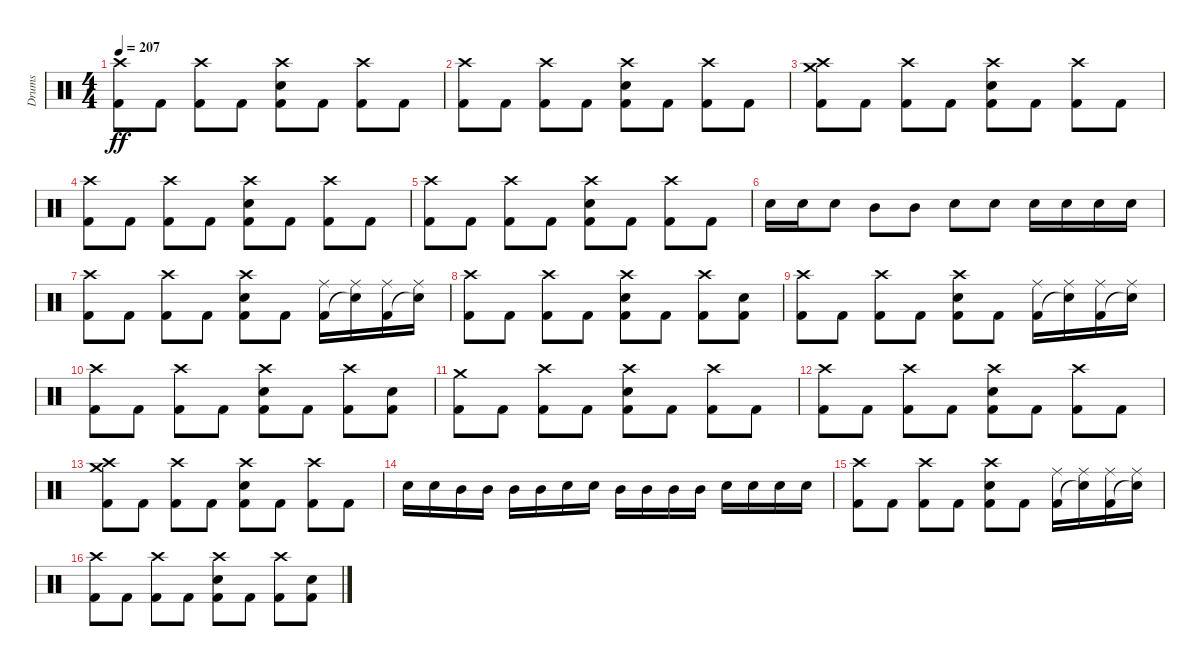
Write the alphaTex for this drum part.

\track ("Drums" "Drums") {instrument percussion}
\staff {score}
\articulation defaults
\ts (4 4)
\tempo 207
\clef neutral
\ks c
("Crash high (hit)" "Kick (hit) 2").8{dy ff} "Kick (hit) 2".8 ("Crash high (hit)" "Kick (hit) 2").8 "Kick (hit) 2".8 ("Crash high (hit)" "Snare (hit) 2" "Kick (hit) 2").8 "Kick (hit) 2".8 ("Crash high (hit)" "Kick (hit) 2").8 "Kick (hit) 2".8 |
("Crash high (hit)" "Kick (hit) 2").8 "Kick (hit) 2".8 ("Crash high (hit)" "Kick (hit) 2").8 "Kick (hit) 2".8 ("Crash high (hit)" "Snare (hit) 2" "Kick (hit) 2").8 "Kick (hit) 2".8 ("Crash high (hit)" "Kick (hit) 2").8 "Kick (hit) 2".8 |
("Crash medium (hit)" "Crash high (hit)" "Kick (hit) 2").8 "Kick (hit) 2".8 ("Crash high (hit)" "Kick (hit) 2").8 "Kick (hit) 2".8 ("Crash high (hit)" "Snare (hit) 2" "Kick (hit) 2").8 "Kick (hit) 2".8 ("Crash high (hit)" "Kick (hit) 2").8 "Kick (hit) 2".8 |
("Crash high (hit)" "Kick (hit) 2").8 "Kick (hit) 2".8 ("Crash high (hit)" "Kick (hit) 2").8 "Kick (hit) 2".8 ("Crash high (hit)" "Snare (hit) 2" "Kick (hit) 2").8 "Kick (hit) 2".8 ("Crash high (hit)" "Kick (hit) 2").8 "Kick (hit) 2".8 |
("Crash high (hit)" "Kick (hit) 2").8 "Kick (hit) 2".8 ("Crash high (hit)" "Kick (hit) 2").8 "Kick (hit) 2".8 ("Crash high (hit)" "Snare (hit) 2" "Kick (hit) 2").8 "Kick (hit) 2".8 ("Crash high (hit)" "Kick (hit) 2").8 "Kick (hit) 2".8 |
"Snare (hit) 2".16 "Snare (hit) 2".16 "Snare (hit) 2".8 "Mid Tom (hit)".8 "Mid Tom (hit)".8 "Snare (hit) 2".8 "Snare (hit) 2".8 "Snare (hit) 2".16 "Snare (hit) 2".16 "Snare (hit) 2".16 "Snare (hit) 2".16 |
("Crash high (hit)" "Kick (hit) 2").8 "Kick (hit) 2".8 ("Crash high (hit)" "Kick (hit) 2").8 "Kick (hit) 2".8 ("Crash high (hit)" "Snare (hit) 2" "Kick (hit) 2").8 "Kick (hit) 2".8 ("Ride (middle)" "Kick (hit) 2").16 ("Ride (middle)" "Snare (hit)"{t}).16 ("Ride (middle)" "Kick (hit) 2").16 ("Ride (middle)" "Snare (hit)"{t}).16 |
("Crash high (hit)" "Kick (hit) 2").8 "Kick (hit) 2".8 ("Crash high (hit)" "Kick (hit) 2").8 "Kick (hit) 2".8 ("Crash high (hit)" "Snare (hit) 2" "Kick (hit) 2").8 "Kick (hit) 2".8 ("Crash high (hit)" "Kick (hit) 2").8 ("Snare (hit) 2" "Kick (hit) 2").8 |
("Crash high (hit)" "Kick (hit) 2").8 "Kick (hit) 2".8 ("Crash high (hit)" "Kick (hit) 2").8 "Kick (hit) 2".8 ("Crash high (hit)" "Snare (hit) 2" "Kick (hit) 2").8 "Kick (hit) 2".8 ("Ride (middle)" "Kick (hit) 2").16 ("Ride (middle)" "Snare (hit)"{t}).16 ("Ride (middle)" "Kick (hit) 2").16 ("Ride (middle)" "Snare (hit)"{t}).16 |
("Crash high (hit)" "Kick (hit) 2").8 "Kick (hit) 2".8 ("Crash high (hit)" "Kick (hit) 2").8 "Kick (hit) 2".8 ("Crash high (hit)" "Snare (hit) 2" "Kick (hit) 2").8 "Kick (hit) 2".8 ("Crash high (hit)" "Kick (hit) 2").8 ("Snare (hit) 2" "Kick (hit) 2").8 |
("Crash medium (hit)" "Kick (hit) 2").8 "Kick (hit) 2".8 ("Crash high (hit)" "Kick (hit) 2").8 "Kick (hit) 2".8 ("Crash high (hit)" "Snare (hit) 2" "Kick (hit) 2").8 "Kick (hit) 2".8 ("Crash high (hit)" "Kick (hit) 2").8 "Kick (hit) 2".8 |
("Crash high (hit)" "Kick (hit) 2").8 "Kick (hit) 2".8 ("Crash high (hit)" "Kick (hit) 2").8 "Kick (hit) 2".8 ("Crash high (hit)" "Snare (hit) 2" "Kick (hit) 2").8 "Kick (hit) 2".8 ("Crash high (hit)" "Kick (hit) 2").8 "Kick (hit) 2".8 |
("Crash medium (hit)" "Crash high (hit)" "Kick (hit) 2").8 "Kick (hit) 2".8 ("Crash high (hit)" "Kick (hit) 2").8 "Kick (hit) 2".8 ("Crash high (hit)" "Snare (hit) 2" "Kick (hit) 2").8 "Kick (hit) 2".8 ("Crash high (hit)" "Kick (hit) 2").8 "Kick (hit) 2".8 |
"Snare (hit) 2".16 "Snare (hit) 2".16 "Mid Tom (hit)".16 "Mid Tom (hit)".16 "Mid Tom (hit)".16 "Mid Tom (hit)".16 "Snare (hit) 2".16 "Snare (hit) 2".16 "Mid Tom (hit)".16 "Mid Tom (hit)".16 "Mid Tom (hit)".16 "Mid Tom (hit)".16 "Snare (hit) 2".16 "Snare (hit) 2".16 "Snare (hit) 2".16 "Snare (hit) 2".16 |
("Crash high (hit)" "Kick (hit) 2").8 "Kick (hit) 2".8 ("Crash high (hit)" "Kick (hit) 2").8 "Kick (hit) 2".8 ("Crash high (hit)" "Snare (hit) 2" "Kick (hit) 2").8 "Kick (hit) 2".8 ("Ride (middle)" "Kick (hit) 2").16 ("Ride (middle)" "Snare (hit)"{t}).16 ("Ride (middle)" "Kick (hit) 2").16 ("Ride (middle)" "Snare (hit)"{t}).16 |
("Crash high (hit)" "Kick (hit) 2").8 "Kick (hit) 2".8 ("Crash high (hit)" "Kick (hit) 2").8 "Kick (hit) 2".8 ("Crash high (hit)" "Snare (hit) 2" "Kick (hit) 2").8 "Kick (hit) 2".8 ("Crash high (hit)" "Kick (hit) 2").8 ("Snare (hit) 2" "Kick (hit) 2").8
